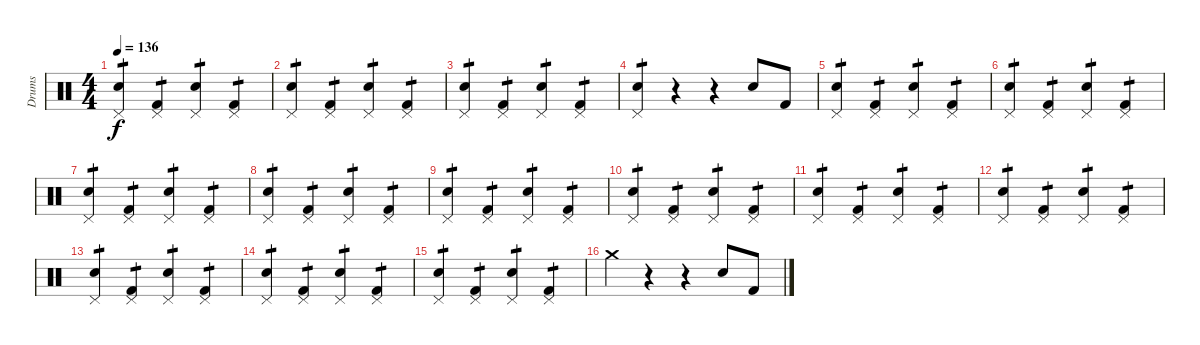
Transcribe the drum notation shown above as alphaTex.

\track ("Drums" "Drums") {instrument percussion}
\staff {score}
\articulation defaults
\ts (4 4)
\tempo 136
\clef neutral
\ks c
("Snare (hit) 2" "Pedal Hi-Hat (hit)").4{tp 1 dy f} ("Kick (hit) 2" "Pedal Hi-Hat (hit)").4{tp 1} ("Snare (hit) 2" "Pedal Hi-Hat (hit)").4{tp 1} ("Kick (hit) 2" "Pedal Hi-Hat (hit)").4{tp 1} |
("Snare (hit) 2" "Pedal Hi-Hat (hit)").4{tp 1} ("Kick (hit) 2" "Pedal Hi-Hat (hit)").4{tp 1} ("Snare (hit) 2" "Pedal Hi-Hat (hit)").4{tp 1} ("Kick (hit) 2" "Pedal Hi-Hat (hit)").4{tp 1} |
("Snare (hit) 2" "Pedal Hi-Hat (hit)").4{tp 1} ("Kick (hit) 2" "Pedal Hi-Hat (hit)").4{tp 1} ("Snare (hit) 2" "Pedal Hi-Hat (hit)").4{tp 1} ("Kick (hit) 2" "Pedal Hi-Hat (hit)").4{tp 1} |
("Snare (hit) 2" "Pedal Hi-Hat (hit)").4{tp 1} r.4 r.4 "Snare (hit) 2".8 "Kick (hit) 2".8 |
("Snare (hit) 2" "Pedal Hi-Hat (hit)").4{tp 1} ("Kick (hit) 2" "Pedal Hi-Hat (hit)").4{tp 1} ("Snare (hit) 2" "Pedal Hi-Hat (hit)").4{tp 1} ("Kick (hit) 2" "Pedal Hi-Hat (hit)").4{tp 1} |
("Snare (hit) 2" "Pedal Hi-Hat (hit)").4{tp 1} ("Kick (hit) 2" "Pedal Hi-Hat (hit)").4{tp 1} ("Snare (hit) 2" "Pedal Hi-Hat (hit)").4{tp 1} ("Kick (hit) 2" "Pedal Hi-Hat (hit)").4{tp 1} |
("Snare (hit) 2" "Pedal Hi-Hat (hit)").4{tp 1} ("Kick (hit) 2" "Pedal Hi-Hat (hit)").4{tp 1} ("Snare (hit) 2" "Pedal Hi-Hat (hit)").4{tp 1} ("Kick (hit) 2" "Pedal Hi-Hat (hit)").4{tp 1} |
("Snare (hit) 2" "Pedal Hi-Hat (hit)").4{tp 1} ("Kick (hit) 2" "Pedal Hi-Hat (hit)").4{tp 1} ("Snare (hit) 2" "Pedal Hi-Hat (hit)").4{tp 1} ("Kick (hit) 2" "Pedal Hi-Hat (hit)").4{tp 1} |
("Snare (hit) 2" "Pedal Hi-Hat (hit)").4{tp 1} ("Kick (hit) 2" "Pedal Hi-Hat (hit)").4{tp 1} ("Snare (hit) 2" "Pedal Hi-Hat (hit)").4{tp 1} ("Kick (hit) 2" "Pedal Hi-Hat (hit)").4{tp 1} |
("Snare (hit) 2" "Pedal Hi-Hat (hit)").4{tp 1} ("Kick (hit) 2" "Pedal Hi-Hat (hit)").4{tp 1} ("Snare (hit) 2" "Pedal Hi-Hat (hit)").4{tp 1} ("Kick (hit) 2" "Pedal Hi-Hat (hit)").4{tp 1} |
("Snare (hit) 2" "Pedal Hi-Hat (hit)").4{tp 1} ("Kick (hit) 2" "Pedal Hi-Hat (hit)").4{tp 1} ("Snare (hit) 2" "Pedal Hi-Hat (hit)").4{tp 1} ("Kick (hit) 2" "Pedal Hi-Hat (hit)").4{tp 1} |
("Snare (hit) 2" "Pedal Hi-Hat (hit)").4{tp 1} ("Kick (hit) 2" "Pedal Hi-Hat (hit)").4{tp 1} ("Snare (hit) 2" "Pedal Hi-Hat (hit)").4{tp 1} ("Kick (hit) 2" "Pedal Hi-Hat (hit)").4{tp 1} |
("Snare (hit) 2" "Pedal Hi-Hat (hit)").4{tp 1} ("Kick (hit) 2" "Pedal Hi-Hat (hit)").4{tp 1} ("Snare (hit) 2" "Pedal Hi-Hat (hit)").4{tp 1} ("Kick (hit) 2" "Pedal Hi-Hat (hit)").4{tp 1} |
("Snare (hit) 2" "Pedal Hi-Hat (hit)").4{tp 1} ("Kick (hit) 2" "Pedal Hi-Hat (hit)").4{tp 1} ("Snare (hit) 2" "Pedal Hi-Hat (hit)").4{tp 1} ("Kick (hit) 2" "Pedal Hi-Hat (hit)").4{tp 1} |
("Snare (hit) 2" "Pedal Hi-Hat (hit)").4{tp 1} ("Kick (hit) 2" "Pedal Hi-Hat (hit)").4{tp 1} ("Snare (hit) 2" "Pedal Hi-Hat (hit)").4{tp 1} ("Kick (hit) 2" "Pedal Hi-Hat (hit)").4{tp 1} |
"Crash medium (hit)".4 r.4 r.4 "Snare (hit) 2".8 "Kick (hit) 2".8
